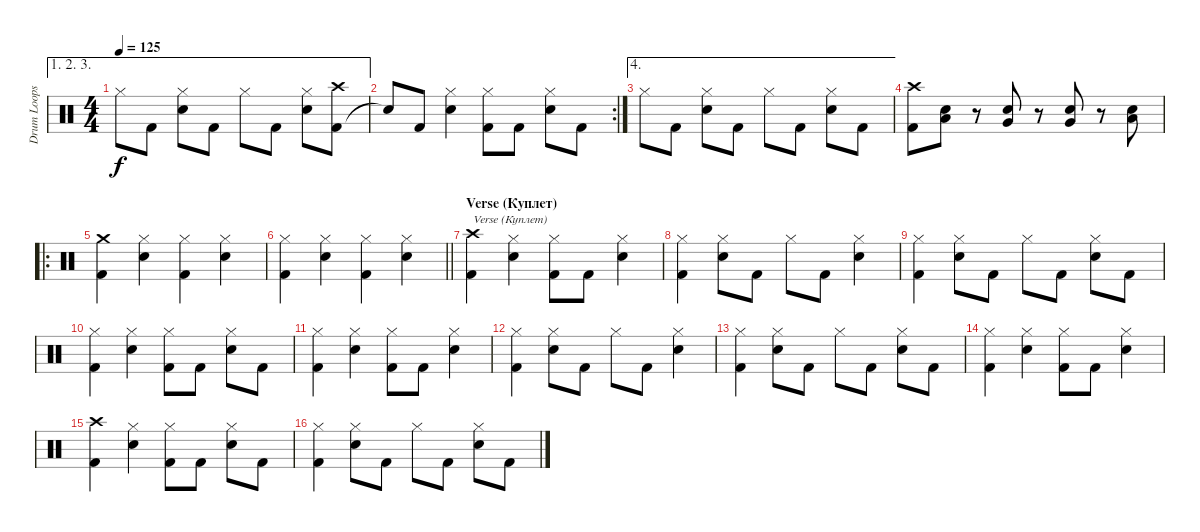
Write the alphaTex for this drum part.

\track ("Drum Loops (Дурачок)" "Drum Loops") {instrument percussion}
\staff {score}
\articulation defaults
\ae (1 2 3)
\ts (4 4)
\tempo 125
\clef neutral
\ks c "Hi-Hat (closed)".8{dy f} "Kick (hit) 2".8
("Snare (hit) 2" "Hi-Hat (closed)").8 "Kick (hit) 2".8 "Hi-Hat (closed)".8 "Kick (hit) 2".8 ("Snare (hit) 2" "Hi-Hat (closed)").8 ("Kick (hit) 2" "Crash high (hit)").8 |
\rc 2 "Snare (hit)"{t}.8 "Kick (hit) 2".8
("Snare (hit) 2" "Hi-Hat (closed)").4 ("Kick (hit) 2" "Hi-Hat (closed)").8 "Kick (hit) 2".8 ("Snare (hit) 2" "Hi-Hat (closed)").8 "Kick (hit) 2".8 |
\ae 4 "Hi-Hat (closed)".8 "Kick (hit) 2".8
("Snare (hit) 2" "Hi-Hat (closed)").8 "Kick (hit) 2".8 "Hi-Hat (closed)".8 "Kick (hit) 2".8 ("Snare (hit) 2" "Hi-Hat (closed)").8 "Kick (hit) 2".8 |
("Kick (hit) 2" "Crash high (hit)").8 ("Snare (hit) 2" "Low Tom (hit)").8 r.8 ("Snare (hit) 2" "Very Low Tom (hit)").8 r.8 ("Snare (hit) 2" "Very Low Tom (hit)").8 r.8 ("Snare (hit) 2" "Low Floor Tom (hit)").8 |
\ro
("Kick (hit) 2" "Crash medium (hit)").4 ("Snare (hit) 2" "Hi-Hat (closed)").4 ("Kick (hit) 2" "Hi-Hat (closed)").4 ("Snare (hit) 2" "Hi-Hat (closed)").4 |
\barLineRight lightlight
("Kick (hit) 2" "Hi-Hat (closed)").4 ("Snare (hit) 2" "Hi-Hat (closed)").4 ("Kick (hit) 2" "Hi-Hat (closed)").4 ("Snare (hit) 2" "Hi-Hat (closed)").4 |
\section ("" "Verse (Куплет)")
("Kick (hit) 2" "Crash high (hit)").4{txt "Verse (Куплет)"} ("Snare (hit) 2" "Hi-Hat (closed)").4 ("Kick (hit) 2" "Hi-Hat (closed)").8 "Kick (hit) 2".8 ("Snare (hit) 2" "Hi-Hat (closed)").4 |
("Kick (hit) 2" "Hi-Hat (closed)").4 ("Snare (hit) 2" "Hi-Hat (closed)").8 "Kick (hit) 2".8 "Hi-Hat (closed)".8 "Kick (hit) 2".8 ("Snare (hit) 2" "Hi-Hat (closed)").4 |
("Kick (hit) 2" "Hi-Hat (closed)").4 ("Snare (hit) 2" "Hi-Hat (closed)").8 "Kick (hit) 2".8 "Hi-Hat (closed)".8 "Kick (hit) 2".8 ("Snare (hit) 2" "Hi-Hat (closed)").8 "Kick (hit) 2".8 |
("Kick (hit) 2" "Hi-Hat (closed)").4 ("Snare (hit) 2" "Hi-Hat (closed)").4 ("Kick (hit) 2" "Hi-Hat (closed)").8 "Kick (hit) 2".8 ("Snare (hit) 2" "Hi-Hat (closed)").8 "Kick (hit) 2".8 |
("Kick (hit) 2" "Hi-Hat (closed)").4 ("Snare (hit) 2" "Hi-Hat (closed)").4 ("Kick (hit) 2" "Hi-Hat (closed)").8 "Kick (hit) 2".8 ("Snare (hit) 2" "Hi-Hat (closed)").4 |
("Kick (hit) 2" "Hi-Hat (closed)").4 ("Snare (hit) 2" "Hi-Hat (closed)").8 "Kick (hit) 2".8 "Hi-Hat (closed)".8 "Kick (hit) 2".8 ("Snare (hit) 2" "Hi-Hat (closed)").4 |
("Kick (hit) 2" "Hi-Hat (closed)").4 ("Snare (hit) 2" "Hi-Hat (closed)").8 "Kick (hit) 2".8 "Hi-Hat (closed)".8 "Kick (hit) 2".8 ("Snare (hit) 2" "Hi-Hat (closed)").8 "Kick (hit) 2".8 |
("Kick (hit) 2" "Hi-Hat (closed)").4 ("Snare (hit) 2" "Hi-Hat (closed)").4 ("Kick (hit) 2" "Hi-Hat (closed)").8 "Kick (hit) 2".8 ("Snare (hit) 2" "Hi-Hat (closed)").4 |
("Kick (hit) 2" "Crash high (hit)").4 ("Snare (hit) 2" "Hi-Hat (closed)").4 ("Kick (hit) 2" "Hi-Hat (closed)").8 "Kick (hit) 2".8 ("Snare (hit) 2" "Hi-Hat (closed)").8 "Kick (hit) 2".8 |
("Kick (hit) 2" "Hi-Hat (closed)").4 ("Snare (hit) 2" "Hi-Hat (closed)").8 "Kick (hit) 2".8 "Hi-Hat (closed)".8 "Kick (hit) 2".8 ("Snare (hit) 2" "Hi-Hat (closed)").8 "Kick (hit) 2".8
